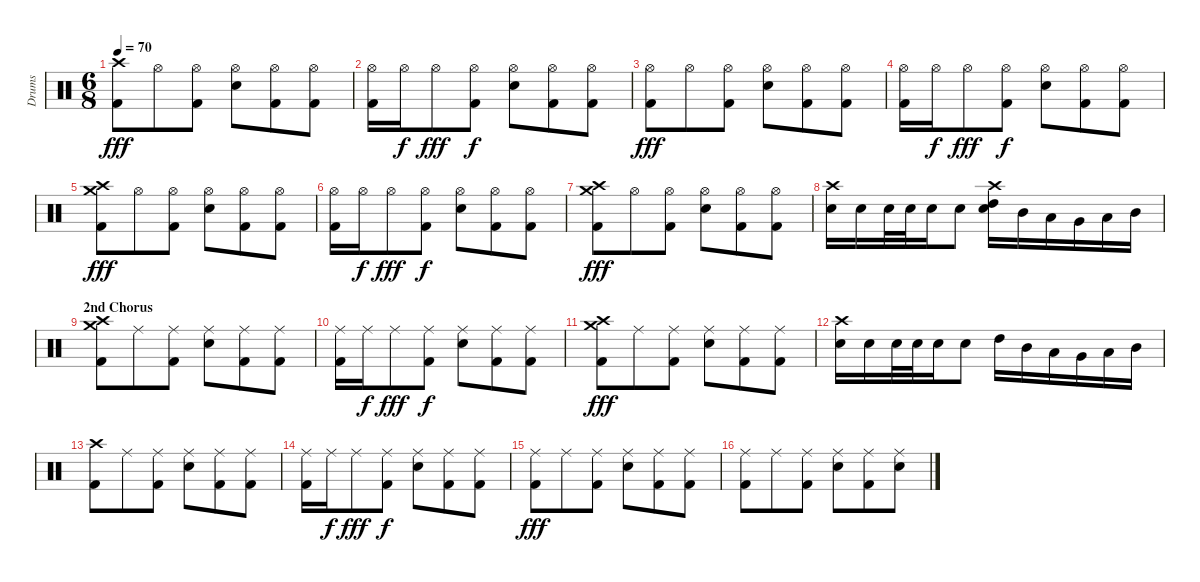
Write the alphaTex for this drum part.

\track ("Drums" "Drums") {instrument percussion}
\staff {score}
\articulation defaults
\ts (6 8)
\tempo 70
\clef neutral
\ks c
("Crash high (hit)" "Kick (hit) 2").8{dy fff} "Hi-Hat (open)".8 ("Hi-Hat (open)" "Kick (hit) 2").8 ("Hi-Hat (open)" "Electric Snare (hit)").8 ("Hi-Hat (open)" "Kick (hit) 2").8 ("Hi-Hat (open)" "Kick (hit) 2").8 |
("Hi-Hat (open)" "Kick (hit) 2").16 "Hi-Hat (open)".16{dy f} "Hi-Hat (open)".8{dy fff} ("Hi-Hat (open)" "Kick (hit) 2").8{dy f} ("Hi-Hat (open)" "Electric Snare (hit)").8 ("Hi-Hat (open)" "Kick (hit) 2").8 ("Hi-Hat (open)" "Kick (hit) 2").8 |
("Hi-Hat (open)" "Kick (hit) 2").8{dy fff} "Hi-Hat (open)".8 ("Hi-Hat (open)" "Kick (hit) 2").8 ("Hi-Hat (open)" "Electric Snare (hit)").8 ("Hi-Hat (open)" "Kick (hit) 2").8 ("Hi-Hat (open)" "Kick (hit) 2").8 |
("Hi-Hat (open)" "Kick (hit) 2").16 "Hi-Hat (open)".16{dy f} "Hi-Hat (open)".8{dy fff} ("Hi-Hat (open)" "Kick (hit) 2").8{dy f} ("Hi-Hat (open)" "Electric Snare (hit)").8 ("Hi-Hat (open)" "Kick (hit) 2").8 ("Hi-Hat (open)" "Kick (hit) 2").8 |
("Crash high (hit)" "Crash medium (hit)" "Kick (hit) 2").8{dy fff} "Hi-Hat (open)".8 ("Hi-Hat (open)" "Kick (hit) 2").8 ("Hi-Hat (open)" "Electric Snare (hit)").8 ("Hi-Hat (open)" "Kick (hit) 2").8 ("Hi-Hat (open)" "Kick (hit) 2").8 |
("Hi-Hat (open)" "Kick (hit) 2").16 "Hi-Hat (open)".16{dy f} "Hi-Hat (open)".8{dy fff} ("Hi-Hat (open)" "Kick (hit) 2").8{dy f} ("Hi-Hat (open)" "Electric Snare (hit)").8 ("Hi-Hat (open)" "Kick (hit) 2").8 ("Hi-Hat (open)" "Kick (hit) 2").8 |
("Crash high (hit)" "Crash medium (hit)" "Kick (hit) 2").8{dy fff} "Hi-Hat (open)".8 ("Hi-Hat (open)" "Kick (hit) 2").8 ("Hi-Hat (open)" "Electric Snare (hit)").8 ("Hi-Hat (open)" "Kick (hit) 2").8 ("Hi-Hat (open)" "Kick (hit) 2").8 |
("Crash high (hit)" "Electric Snare (hit)").16 "Electric Snare (hit)".16 "Electric Snare (hit)".32 "Electric Snare (hit)".32 "Electric Snare (hit)".16 "Electric Snare (hit)".8 ("Crash high (hit)" "High Tom (hit)" "Electric Snare (hit)").16 "Mid Tom (hit)".16 "Low Tom (hit)".16 "Very Low Tom (hit)".16 "Low Tom (hit)".16 "Mid Tom (hit)".16 |
\section ("" "2nd Chorus")
("Crash high (hit)" "Crash medium (hit)" "Kick (hit) 2").8 "Ride (middle)".8 ("Ride (middle)" "Kick (hit) 2").8 ("Ride (middle)" "Electric Snare (hit)").8 ("Ride (middle)" "Kick (hit) 2").8 ("Ride (middle)" "Kick (hit) 2").8 |
("Ride (middle)" "Kick (hit) 2").16 "Ride (middle)".16{dy f} "Ride (middle)".8{dy fff} ("Ride (middle)" "Kick (hit) 2").8{dy f} ("Ride (middle)" "Electric Snare (hit)").8 ("Ride (middle)" "Kick (hit) 2").8 ("Ride (middle)" "Kick (hit) 2").8 |
("Crash high (hit)" "Crash medium (hit)" "Kick (hit) 2").8{dy fff} "Ride (middle)".8 ("Ride (middle)" "Kick (hit) 2").8 ("Ride (middle)" "Electric Snare (hit)").8 ("Ride (middle)" "Kick (hit) 2").8 ("Ride (middle)" "Kick (hit) 2").8 |
("Crash high (hit)" "Electric Snare (hit)").16 "Electric Snare (hit)".16 "Electric Snare (hit)".32 "Electric Snare (hit)".32 "Electric Snare (hit)".16 "Electric Snare (hit)".8 "High Tom (hit)".16 "Mid Tom (hit)".16 "Low Tom (hit)".16 "Very Low Tom (hit)".16 "Low Tom (hit)".16 "Mid Tom (hit)".16 |
("Crash high (hit)" "Kick (hit) 2").8 "Ride (middle)".8 ("Ride (middle)" "Kick (hit) 2").8 ("Ride (middle)" "Electric Snare (hit)").8 ("Ride (middle)" "Kick (hit) 2").8 ("Ride (middle)" "Kick (hit) 2").8 |
("Ride (middle)" "Kick (hit) 2").16 "Ride (middle)".16{dy f} "Ride (middle)".8{dy fff} ("Ride (middle)" "Kick (hit) 2").8{dy f} ("Ride (middle)" "Electric Snare (hit)").8 ("Ride (middle)" "Kick (hit) 2").8 ("Ride (middle)" "Kick (hit) 2").8 |
("Ride (middle)" "Kick (hit) 2").8{dy fff} "Ride (middle)".8 ("Ride (middle)" "Kick (hit) 2").8 ("Ride (middle)" "Electric Snare (hit)").8 ("Ride (middle)" "Kick (hit) 2").8 ("Ride (middle)" "Kick (hit) 2").8 |
("Ride (middle)" "Kick (hit) 2").8 "Ride (middle)".8 ("Ride (middle)" "Kick (hit) 2").8 ("Ride (middle)" "Electric Snare (hit)").8 ("Ride (middle)" "Kick (hit) 2").8 ("Ride (middle)" "Electric Snare (hit)").8
